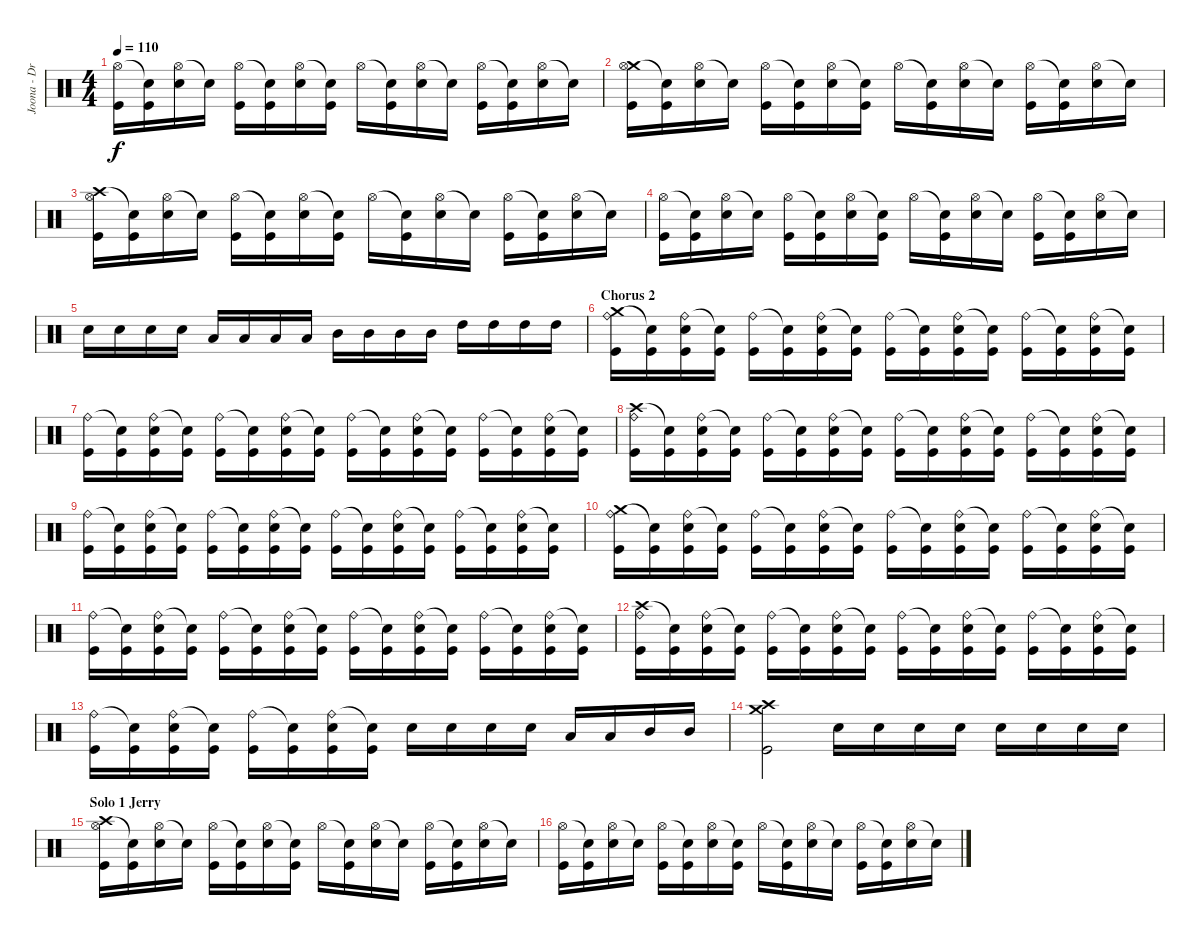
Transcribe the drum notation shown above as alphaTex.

\track ("Joona - Drums" "Joona - Dr") {instrument percussion}
\staff {score}
\articulation defaults
\ts (4 4)
\tempo 110
\clef neutral
\ks c
("Hi-Hat (open)" "Kick (hit)").16{dy f} ("Snare (hit)"{t} "Kick (hit)").16 ("Hi-Hat (open)" "Snare (hit) 2").16 "Snare (hit)"{t}.16 ("Hi-Hat (open)" "Kick (hit)").16 ("Snare (hit)"{t} "Kick (hit)").16 ("Hi-Hat (open)" "Snare (hit) 2").16 ("Snare (hit)"{t} "Kick (hit)").16 "Hi-Hat (open)".16 ("Snare (hit)"{t} "Kick (hit)").16 ("Hi-Hat (open)" "Snare (hit) 2").16 "Snare (hit)"{t}.16 ("Hi-Hat (open)" "Kick (hit)").16 ("Snare (hit)"{t} "Kick (hit)").16 ("Hi-Hat (open)" "Snare (hit) 2").16 "Snare (hit)"{t}.16 |
("Crash medium (hit)" "Hi-Hat (open)" "Kick (hit)").16 ("Snare (hit)"{t} "Kick (hit)").16 ("Hi-Hat (open)" "Snare (hit) 2").16 "Snare (hit)"{t}.16 ("Hi-Hat (open)" "Kick (hit)").16 ("Snare (hit)"{t} "Kick (hit)").16 ("Hi-Hat (open)" "Snare (hit) 2").16 ("Snare (hit)"{t} "Kick (hit)").16 "Hi-Hat (open)".16 ("Snare (hit)"{t} "Kick (hit)").16 ("Hi-Hat (open)" "Snare (hit) 2").16 "Snare (hit)"{t}.16 ("Hi-Hat (open)" "Kick (hit)").16 ("Snare (hit)"{t} "Kick (hit)").16 ("Hi-Hat (open)" "Snare (hit) 2").16 "Snare (hit)"{t}.16 |
("Crash high (hit)" "Hi-Hat (open)" "Kick (hit)").16 ("Snare (hit)"{t} "Kick (hit)").16 ("Hi-Hat (open)" "Snare (hit) 2").16 "Snare (hit)"{t}.16 ("Hi-Hat (open)" "Kick (hit)").16 ("Snare (hit)"{t} "Kick (hit)").16 ("Hi-Hat (open)" "Snare (hit) 2").16 ("Snare (hit)"{t} "Kick (hit)").16 "Hi-Hat (open)".16 ("Snare (hit)"{t} "Kick (hit)").16 ("Hi-Hat (open)" "Snare (hit) 2").16 "Snare (hit)"{t}.16 ("Hi-Hat (open)" "Kick (hit)").16 ("Snare (hit)"{t} "Kick (hit)").16 ("Hi-Hat (open)" "Snare (hit) 2").16 "Snare (hit)"{t}.16 |
("Hi-Hat (open)" "Kick (hit)").16 ("Snare (hit)"{t} "Kick (hit)").16 ("Hi-Hat (open)" "Snare (hit) 2").16 "Snare (hit)"{t}.16 ("Hi-Hat (open)" "Kick (hit)").16 ("Snare (hit)"{t} "Kick (hit)").16 ("Hi-Hat (open)" "Snare (hit) 2").16 ("Snare (hit)"{t} "Kick (hit)").16 "Hi-Hat (open)".16 ("Snare (hit)"{t} "Kick (hit)").16 ("Hi-Hat (open)" "Snare (hit) 2").16 "Snare (hit)"{t}.16 ("Hi-Hat (open)" "Kick (hit)").16 ("Snare (hit)"{t} "Kick (hit)").16 ("Hi-Hat (open)" "Snare (hit) 2").16 "Snare (hit)"{t}.16 |
"Snare (hit) 2".16 "Snare (hit) 2".16 "Snare (hit) 2".16 "Snare (hit) 2".16 "Low Tom (hit)".16 "Low Tom (hit)".16 "Low Tom (hit)".16 "Low Tom (hit)".16 "Mid Tom (hit)".16 "Mid Tom (hit)".16 "Mid Tom (hit)".16 "Mid Tom (hit)".16 "High Tom (hit)".16 "High Tom (hit)".16 "High Tom (hit)".16 "High Tom (hit)".16 |
\section ("" "Chorus 2")
("Crash medium (hit)" "Ride (bell)" "Kick (hit)").16 ("Snare (hit)"{t} "Kick (hit)").16 ("Ride (bell)" "Snare (hit) 2" "Kick (hit)").16 ("Snare (hit)"{t} "Kick (hit)").16 ("Ride (bell)" "Kick (hit)").16 ("Snare (hit)"{t} "Kick (hit)").16 ("Ride (bell)" "Snare (hit) 2" "Kick (hit)").16 ("Snare (hit)"{t} "Kick (hit)").16 ("Ride (bell)" "Kick (hit)").16 ("Snare (hit)"{t} "Kick (hit)").16 ("Ride (bell)" "Snare (hit) 2" "Kick (hit)").16 ("Snare (hit)"{t} "Kick (hit)").16 ("Ride (bell)" "Kick (hit)").16 ("Snare (hit)"{t} "Kick (hit)").16 ("Ride (bell)" "Snare (hit) 2" "Kick (hit)").16 ("Snare (hit)"{t} "Kick (hit)").16 |
("Ride (bell)" "Kick (hit)").16 ("Snare (hit)"{t} "Kick (hit)").16 ("Ride (bell)" "Snare (hit) 2" "Kick (hit)").16 ("Snare (hit)"{t} "Kick (hit)").16 ("Ride (bell)" "Kick (hit)").16 ("Snare (hit)"{t} "Kick (hit)").16 ("Ride (bell)" "Snare (hit) 2" "Kick (hit)").16 ("Snare (hit)"{t} "Kick (hit)").16 ("Ride (bell)" "Kick (hit)").16 ("Snare (hit)"{t} "Kick (hit)").16 ("Ride (bell)" "Snare (hit) 2" "Kick (hit)").16 ("Snare (hit)"{t} "Kick (hit)").16 ("Ride (bell)" "Kick (hit)").16 ("Snare (hit)"{t} "Kick (hit)").16 ("Ride (bell)" "Snare (hit) 2" "Kick (hit)").16 ("Snare (hit)"{t} "Kick (hit)").16 |
("Crash high (hit)" "Ride (bell)" "Kick (hit)").16 ("Snare (hit)"{t} "Kick (hit)").16 ("Ride (bell)" "Snare (hit) 2" "Kick (hit)").16 ("Snare (hit)"{t} "Kick (hit)").16 ("Ride (bell)" "Kick (hit)").16 ("Snare (hit)"{t} "Kick (hit)").16 ("Ride (bell)" "Snare (hit) 2" "Kick (hit)").16 ("Snare (hit)"{t} "Kick (hit)").16 ("Ride (bell)" "Kick (hit)").16 ("Snare (hit)"{t} "Kick (hit)").16 ("Ride (bell)" "Snare (hit) 2" "Kick (hit)").16 ("Snare (hit)"{t} "Kick (hit)").16 ("Ride (bell)" "Kick (hit)").16 ("Snare (hit)"{t} "Kick (hit)").16 ("Ride (bell)" "Snare (hit) 2" "Kick (hit)").16 ("Snare (hit)"{t} "Kick (hit)").16 |
("Ride (bell)" "Kick (hit)").16 ("Snare (hit)"{t} "Kick (hit)").16 ("Ride (bell)" "Snare (hit) 2" "Kick (hit)").16 ("Snare (hit)"{t} "Kick (hit)").16 ("Ride (bell)" "Kick (hit)").16 ("Snare (hit)"{t} "Kick (hit)").16 ("Ride (bell)" "Snare (hit) 2" "Kick (hit)").16 ("Snare (hit)"{t} "Kick (hit)").16 ("Ride (bell)" "Kick (hit)").16 ("Snare (hit)"{t} "Kick (hit)").16 ("Ride (bell)" "Snare (hit) 2" "Kick (hit)").16 ("Snare (hit)"{t} "Kick (hit)").16 ("Ride (bell)" "Kick (hit)").16 ("Snare (hit)"{t} "Kick (hit)").16 ("Ride (bell)" "Snare (hit) 2" "Kick (hit)").16 ("Snare (hit)"{t} "Kick (hit)").16 |
("Crash medium (hit)" "Ride (bell)" "Kick (hit)").16 ("Snare (hit)"{t} "Kick (hit)").16 ("Ride (bell)" "Snare (hit) 2" "Kick (hit)").16 ("Snare (hit)"{t} "Kick (hit)").16 ("Ride (bell)" "Kick (hit)").16 ("Snare (hit)"{t} "Kick (hit)").16 ("Ride (bell)" "Snare (hit) 2" "Kick (hit)").16 ("Snare (hit)"{t} "Kick (hit)").16 ("Ride (bell)" "Kick (hit)").16 ("Snare (hit)"{t} "Kick (hit)").16 ("Ride (bell)" "Snare (hit) 2" "Kick (hit)").16 ("Snare (hit)"{t} "Kick (hit)").16 ("Ride (bell)" "Kick (hit)").16 ("Snare (hit)"{t} "Kick (hit)").16 ("Ride (bell)" "Snare (hit) 2" "Kick (hit)").16 ("Snare (hit)"{t} "Kick (hit)").16 |
("Ride (bell)" "Kick (hit)").16 ("Snare (hit)"{t} "Kick (hit)").16 ("Ride (bell)" "Snare (hit) 2" "Kick (hit)").16 ("Snare (hit)"{t} "Kick (hit)").16 ("Ride (bell)" "Kick (hit)").16 ("Snare (hit)"{t} "Kick (hit)").16 ("Ride (bell)" "Snare (hit) 2" "Kick (hit)").16 ("Snare (hit)"{t} "Kick (hit)").16 ("Ride (bell)" "Kick (hit)").16 ("Snare (hit)"{t} "Kick (hit)").16 ("Ride (bell)" "Snare (hit) 2" "Kick (hit)").16 ("Snare (hit)"{t} "Kick (hit)").16 ("Ride (bell)" "Kick (hit)").16 ("Snare (hit)"{t} "Kick (hit)").16 ("Ride (bell)" "Snare (hit) 2" "Kick (hit)").16 ("Snare (hit)"{t} "Kick (hit)").16 |
("Crash high (hit)" "Ride (bell)" "Kick (hit)").16 ("Snare (hit)"{t} "Kick (hit)").16 ("Ride (bell)" "Snare (hit) 2" "Kick (hit)").16 ("Snare (hit)"{t} "Kick (hit)").16 ("Ride (bell)" "Kick (hit)").16 ("Snare (hit)"{t} "Kick (hit)").16 ("Ride (bell)" "Snare (hit) 2" "Kick (hit)").16 ("Snare (hit)"{t} "Kick (hit)").16 ("Ride (bell)" "Kick (hit)").16 ("Snare (hit)"{t} "Kick (hit)").16 ("Ride (bell)" "Snare (hit) 2" "Kick (hit)").16 ("Snare (hit)"{t} "Kick (hit)").16 ("Ride (bell)" "Kick (hit)").16 ("Snare (hit)"{t} "Kick (hit)").16 ("Ride (bell)" "Snare (hit) 2" "Kick (hit)").16 ("Snare (hit)"{t} "Kick (hit)").16 |
("Ride (bell)" "Kick (hit)").16 ("Snare (hit)"{t} "Kick (hit)").16 ("Ride (bell)" "Snare (hit) 2" "Kick (hit)").16 ("Snare (hit)"{t} "Kick (hit)").16 ("Ride (bell)" "Kick (hit)").16 ("Snare (hit)"{t} "Kick (hit)").16 ("Ride (bell)" "Snare (hit) 2" "Kick (hit)").16 ("Snare (hit)"{t} "Kick (hit)").16 "Snare (hit) 2".16 "Snare (hit) 2".16 "Snare (hit) 2".16 "Snare (hit) 2".16 "Low Tom (hit)".16 "Low Tom (hit)".16 "Mid Tom (hit)".16 "Mid Tom (hit)".16 |
("Crash medium (hit)" "Crash high (hit)" "Kick (hit)").2 "Snare (hit) 2".16 "Snare (hit) 2".16 "Snare (hit) 2".16 "Snare (hit) 2".16 "Snare (hit) 2".16 "Snare (hit) 2".16 "Snare (hit) 2".16 "Snare (hit) 2".16 |
\section ("" "Solo 1 Jerry")
("Crash high (hit)" "Hi-Hat (open)" "Kick (hit)").16 ("Snare (hit)"{t} "Kick (hit)").16 ("Hi-Hat (open)" "Snare (hit) 2").16 "Snare (hit)"{t}.16 ("Hi-Hat (open)" "Kick (hit)").16 ("Snare (hit)"{t} "Kick (hit)").16 ("Hi-Hat (open)" "Snare (hit) 2").16 ("Snare (hit)"{t} "Kick (hit)").16 "Hi-Hat (open)".16 ("Snare (hit)"{t} "Kick (hit)").16 ("Hi-Hat (open)" "Snare (hit) 2").16 "Snare (hit)"{t}.16 ("Hi-Hat (open)" "Kick (hit)").16 ("Snare (hit)"{t} "Kick (hit)").16 ("Hi-Hat (open)" "Snare (hit) 2").16 "Snare (hit)"{t}.16 |
("Hi-Hat (open)" "Kick (hit)").16 ("Snare (hit)"{t} "Kick (hit)").16 ("Hi-Hat (open)" "Snare (hit) 2").16 "Snare (hit)"{t}.16 ("Hi-Hat (open)" "Kick (hit)").16 ("Snare (hit)"{t} "Kick (hit)").16 ("Hi-Hat (open)" "Snare (hit) 2").16 ("Snare (hit)"{t} "Kick (hit)").16 "Hi-Hat (open)".16 ("Snare (hit)"{t} "Kick (hit)").16 ("Hi-Hat (open)" "Snare (hit) 2").16 "Snare (hit)"{t}.16 ("Hi-Hat (open)" "Kick (hit)").16 ("Snare (hit)"{t} "Kick (hit)").16 ("Hi-Hat (open)" "Snare (hit) 2").16 "Snare (hit)"{t}.16
